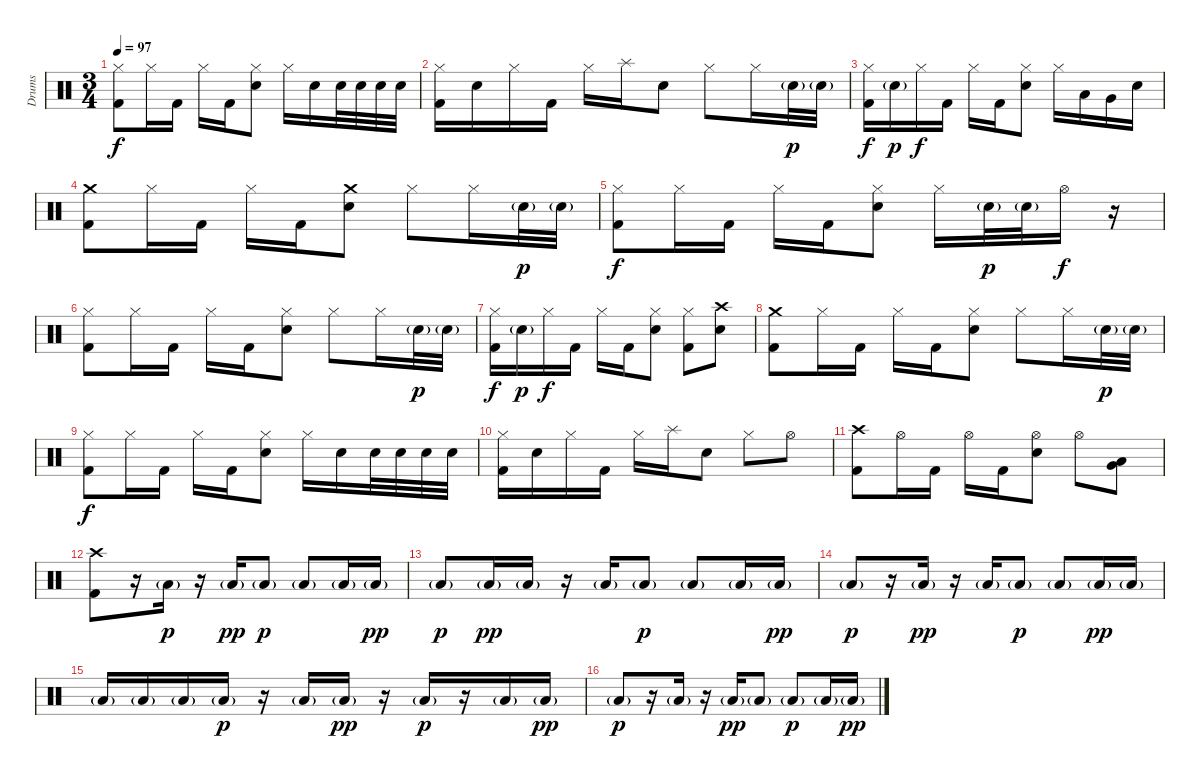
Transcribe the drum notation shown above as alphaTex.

\track ("Drums" "Drums") {instrument percussion}
\staff {score}
\articulation defaults
\ts (3 4)
\tempo 97
\clef neutral
\ks c
("Hi-Hat (closed)" "Kick (hit) 2").8{dy f} "Hi-Hat (closed)".16 "Kick (hit) 2".16 "Hi-Hat (closed)".16 "Kick (hit) 2".16 ("Hi-Hat (closed)" "Electric Snare (hit)").8 "Hi-Hat (closed)".16 "Electric Snare (hit)".16 "Electric Snare (hit)".32 "Electric Snare (hit)".32 "Electric Snare (hit)".32 "Electric Snare (hit)".32 |
("Hi-Hat (closed)" "Kick (hit) 2").16 "Electric Snare (hit)".16 "Hi-Hat (closed)".16 "Kick (hit) 2".16 "Hi-Hat (closed)".16 "Splash (hit)".16 "Electric Snare (hit)".8 "Hi-Hat (closed)".8 "Hi-Hat (closed)".16 "Electric Snare (hit)"{g}.32{dy p} "Electric Snare (hit)"{g}.32 |
("Hi-Hat (closed)" "Kick (hit) 2").16{dy f} "Electric Snare (hit)"{g}.16{dy p} "Hi-Hat (closed)".16{dy f} "Kick (hit) 2".16 "Hi-Hat (closed)".16 "Kick (hit) 2".16 ("Hi-Hat (closed)" "Electric Snare (hit)").8 "Hi-Hat (closed)".16 "Low Tom (hit)".16 "Very Low Tom (hit)".16 "Electric Snare (hit)".16 |
("Crash medium (hit)" "Kick (hit) 2").8 "Hi-Hat (closed)".16 "Kick (hit) 2".16 "Hi-Hat (closed)".16 "Kick (hit) 2".16 ("Crash medium (hit)" "Electric Snare (hit)").8 "Hi-Hat (closed)".8 "Hi-Hat (closed)".16 "Electric Snare (hit)"{g}.32{dy p} "Electric Snare (hit)"{g}.32 |
("Hi-Hat (closed)" "Kick (hit) 2").8{dy f} "Hi-Hat (closed)".16 "Kick (hit) 2".16 "Hi-Hat (closed)".16 "Kick (hit) 2".16 ("Hi-Hat (closed)" "Electric Snare (hit)").8 "Hi-Hat (closed)".16 "Electric Snare (hit)"{g}.32{dy p} "Electric Snare (hit)"{g}.32 "Hi-Hat (open)".16{dy f} r.16 |
("Hi-Hat (closed)" "Kick (hit) 2").8 "Hi-Hat (closed)".16 "Kick (hit) 2".16 "Hi-Hat (closed)".16 "Kick (hit) 2".16 ("Hi-Hat (closed)" "Electric Snare (hit)").8 "Hi-Hat (closed)".8 "Hi-Hat (closed)".16 "Electric Snare (hit)"{g}.32{dy p} "Electric Snare (hit)"{g}.32 |
("Hi-Hat (closed)" "Kick (hit) 2").16{dy f} "Electric Snare (hit)"{g}.16{dy p} "Hi-Hat (closed)".16{dy f} "Kick (hit) 2".16 "Hi-Hat (closed)".16 "Kick (hit) 2".16 ("Hi-Hat (closed)" "Electric Snare (hit)").8 ("Hi-Hat (closed)" "Kick (hit) 2").8 ("Crash high (hit)" "Electric Snare (hit)").8 |
("Crash medium (hit)" "Kick (hit) 2").8 "Hi-Hat (closed)".16 "Kick (hit) 2".16 "Hi-Hat (closed)".16 "Kick (hit) 2".16 ("Hi-Hat (closed)" "Electric Snare (hit)").8 "Hi-Hat (closed)".8 "Hi-Hat (closed)".16 "Electric Snare (hit)"{g}.32{dy p} "Electric Snare (hit)"{g}.32 |
("Hi-Hat (closed)" "Kick (hit) 2").8{dy f} "Hi-Hat (closed)".16 "Kick (hit) 2".16 "Hi-Hat (closed)".16 "Kick (hit) 2".16 ("Hi-Hat (closed)" "Electric Snare (hit)").8 "Hi-Hat (closed)".16 "Electric Snare (hit)".16 "Electric Snare (hit)".32 "Electric Snare (hit)".32 "Electric Snare (hit)".32 "Electric Snare (hit)".32 |
("Hi-Hat (closed)" "Kick (hit) 2").16 "Electric Snare (hit)".16 "Hi-Hat (closed)".16 "Kick (hit) 2".16 "Hi-Hat (closed)".16 "Splash (hit)".16 "Electric Snare (hit)".8 "Hi-Hat (closed)".8 "Hi-Hat (open)".8 |
("Crash high (hit)" "Kick (hit) 2").8 "Hi-Hat (open)".16 "Kick (hit) 2".16 "Hi-Hat (open)".16 "Kick (hit) 2".16 ("Hi-Hat (open)" "Electric Snare (hit)").8 "Hi-Hat (open)".8 ("Very Low Tom (hit)" "Low Floor Tom (hit)").8 |
("Crash high (hit)" "Kick (hit) 2").8 r.16 "Low Floor Tom (hit)"{g}.16{dy p} r.16 "Low Floor Tom (hit)"{g}.16{dy pp} "Low Floor Tom (hit)"{g}.8{dy p} "Low Floor Tom (hit)"{g}.8 "Low Floor Tom (hit)"{g}.16 "Low Floor Tom (hit)"{g}.16{dy pp} |
"Low Floor Tom (hit)"{g}.8{dy p} "Low Floor Tom (hit)"{g}.16{dy pp} "Low Floor Tom (hit)"{g}.16 r.16 "Low Floor Tom (hit)"{g}.16 "Low Floor Tom (hit)"{g}.8{dy p} "Low Floor Tom (hit)"{g}.8 "Low Floor Tom (hit)"{g}.16 "Low Floor Tom (hit)"{g}.16{dy pp} |
"Low Floor Tom (hit)"{g}.8{dy p} r.16 "Low Floor Tom (hit)"{g}.16{dy pp} r.16 "Low Floor Tom (hit)"{g}.16 "Low Floor Tom (hit)"{g}.8{dy p} "Low Floor Tom (hit)"{g}.8 "Low Floor Tom (hit)"{g}.16{dy pp} "Low Floor Tom (hit)"{g}.16 |
"Low Floor Tom (hit)"{g}.16 "Low Floor Tom (hit)"{g}.16 "Low Floor Tom (hit)"{g}.16 "Low Floor Tom (hit)"{g}.16{dy p} r.16 "Low Floor Tom (hit)"{g}.16 "Low Floor Tom (hit)"{g}.16{dy pp} r.16 "Low Floor Tom (hit)"{g}.16{dy p} r.16 "Low Floor Tom (hit)"{g}.16 "Low Floor Tom (hit)"{g}.16{dy pp} |
"Low Floor Tom (hit)"{g}.8{dy p} r.16 "Low Floor Tom (hit)"{g}.16 r.16 "Low Floor Tom (hit)"{g}.16{dy pp} "Low Floor Tom (hit)"{g}.8 "Low Floor Tom (hit)"{g}.8{dy p} "Low Floor Tom (hit)"{g}.16 "Low Floor Tom (hit)"{g}.16{dy pp}
